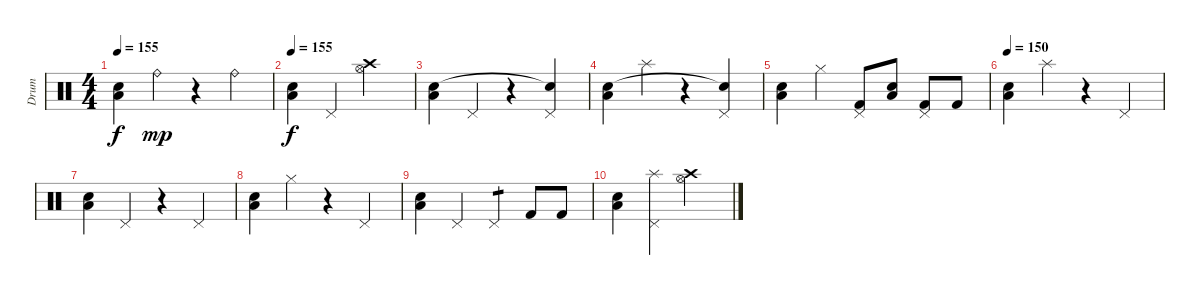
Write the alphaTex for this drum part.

\track ("Drum" "Drum") {instrument percussion}
\staff {score}
\articulation defaults
\ts (4 4)
\tempo 155
\clef neutral
\ks c
("Low Floor Tom (hit)" "Snare (hit) 2").4{dy f} "Ride (bell)".4{dy mp} r.4 "Ride (bell)".4 |
\tempo 155
("Low Floor Tom (hit)" "Snare (hit) 2").4{dy f} "Pedal Hi-Hat (hit)".4 ("Crash high (hit)" "Hi-Hat (open)").2 |
("Low Floor Tom (hit)" "Snare (hit) 2").4 "Pedal Hi-Hat (hit)".4 r.4 ("Pedal Hi-Hat (hit)" "Snare (hit)"{t}).4 |
("Low Floor Tom (hit)" "Snare (hit) 2").4 "Splash (hit)".4 r.4 ("Pedal Hi-Hat (hit)" "Snare (hit)"{t}).4 |
("Low Floor Tom (hit)" "Snare (hit) 2").4 "Hi-Hat (closed)".4 ("Pedal Hi-Hat (hit)" "Kick (hit) 2").8 ("Low Floor Tom (hit)" "Snare (hit) 2").8 ("Pedal Hi-Hat (hit)" "Kick (hit) 2").8 "Kick (hit) 2".8 |
\tempo 150
("Low Floor Tom (hit)" "Snare (hit) 2").4 "Splash (hit)".4 r.4 "Pedal Hi-Hat (hit)".4 |
("Low Floor Tom (hit)" "Snare (hit) 2").4 "Pedal Hi-Hat (hit)".4 r.4 "Pedal Hi-Hat (hit)".4 |
("Low Floor Tom (hit)" "Snare (hit) 2").4 "Hi-Hat (closed)".4 r.4 "Pedal Hi-Hat (hit)".4 |
("Low Floor Tom (hit)" "Snare (hit) 2").4 "Pedal Hi-Hat (hit)".4 "Pedal Hi-Hat (hit)".4{tp 1} "Kick (hit) 2".8 "Kick (hit) 2".8 |
("Low Floor Tom (hit)" "Snare (hit) 2").4 ("Splash (hit)" "Pedal Hi-Hat (hit)").4 ("Crash high (hit)" "Hi-Hat (open)").2
